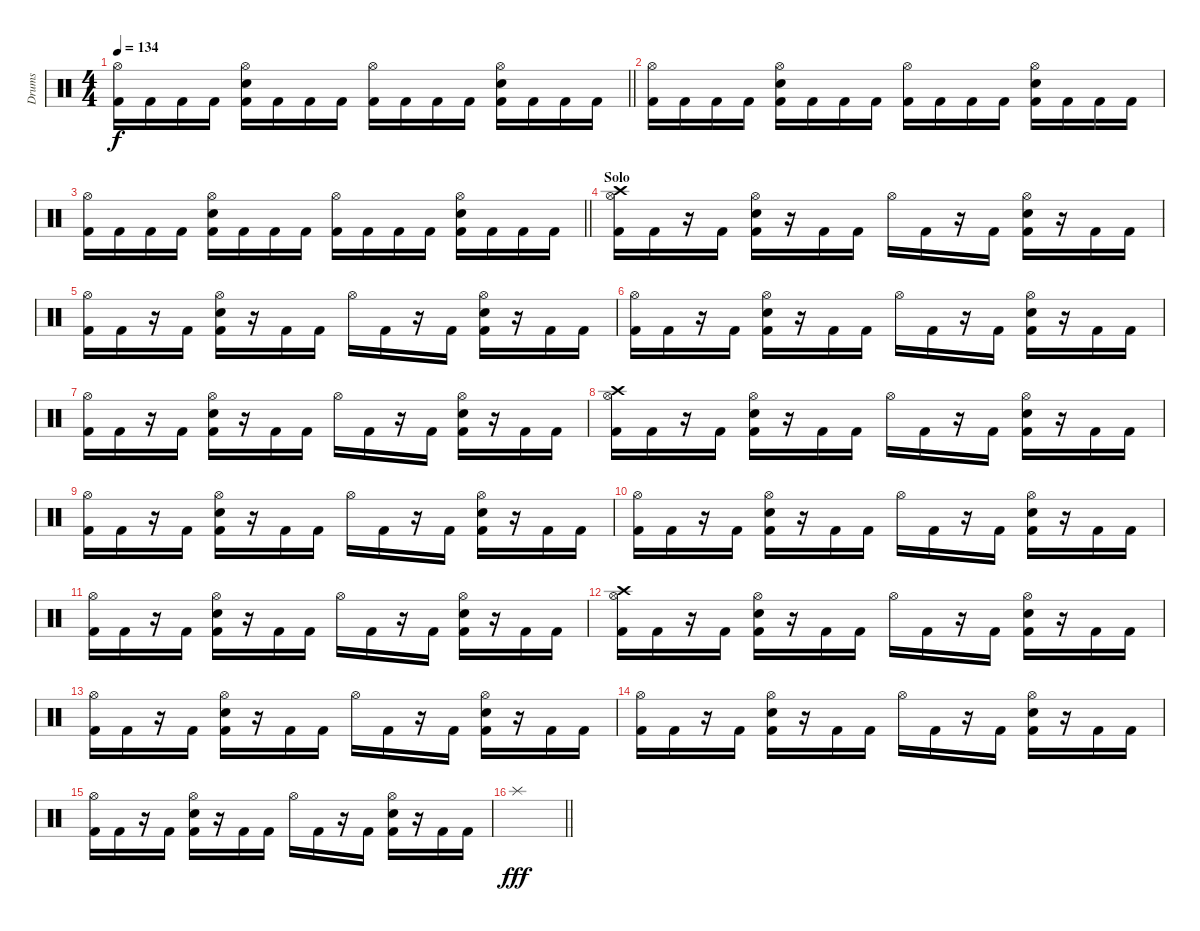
\track ("Drums" "Drums") {instrument percussion}
\staff {score}
\articulation defaults
\ts (4 4)
\tempo 134
\clef neutral
\barLineRight lightlight
\ks c
("Hi-Hat (open)" "Kick (hit) 2").16{dy f} "Kick (hit) 2".16 "Kick (hit) 2".16 "Kick (hit) 2".16 ("Hi-Hat (open)" "Snare (hit) 2" "Kick (hit) 2").16 "Kick (hit) 2".16 "Kick (hit) 2".16 "Kick (hit) 2".16 ("Hi-Hat (open)" "Kick (hit) 2").16 "Kick (hit) 2".16 "Kick (hit) 2".16 "Kick (hit) 2".16 ("Hi-Hat (open)" "Snare (hit) 2" "Kick (hit) 2").16 "Kick (hit) 2".16 "Kick (hit) 2".16 "Kick (hit) 2".16 |
("Hi-Hat (open)" "Kick (hit) 2").16 "Kick (hit) 2".16 "Kick (hit) 2".16 "Kick (hit) 2".16 ("Hi-Hat (open)" "Snare (hit) 2" "Kick (hit) 2").16 "Kick (hit) 2".16 "Kick (hit) 2".16 "Kick (hit) 2".16 ("Hi-Hat (open)" "Kick (hit) 2").16 "Kick (hit) 2".16 "Kick (hit) 2".16 "Kick (hit) 2".16 ("Hi-Hat (open)" "Snare (hit) 2" "Kick (hit) 2").16 "Kick (hit) 2".16 "Kick (hit) 2".16 "Kick (hit) 2".16 |
\barLineRight lightlight
("Hi-Hat (open)" "Kick (hit) 2").16 "Kick (hit) 2".16 "Kick (hit) 2".16 "Kick (hit) 2".16 ("Hi-Hat (open)" "Snare (hit) 2" "Kick (hit) 2").16 "Kick (hit) 2".16 "Kick (hit) 2".16 "Kick (hit) 2".16 ("Hi-Hat (open)" "Kick (hit) 2").16 "Kick (hit) 2".16 "Kick (hit) 2".16 "Kick (hit) 2".16 ("Hi-Hat (open)" "Snare (hit) 2" "Kick (hit) 2").16 "Kick (hit) 2".16 "Kick (hit) 2".16 "Kick (hit) 2".16 |
\section ("" "Solo")
("Crash high (hit)" "Hi-Hat (open)" "Kick (hit) 2").16 "Kick (hit) 2".16 r.16 "Kick (hit) 2".16 ("Hi-Hat (open)" "Snare (hit) 2" "Kick (hit) 2").16 r.16 "Kick (hit) 2".16 "Kick (hit) 2".16 "Hi-Hat (open)".16 "Kick (hit) 2".16 r.16 "Kick (hit) 2".16 ("Hi-Hat (open)" "Snare (hit) 2" "Kick (hit) 2").16 r.16 "Kick (hit) 2".16 "Kick (hit) 2".16 |
("Hi-Hat (open)" "Kick (hit) 2").16 "Kick (hit) 2".16 r.16 "Kick (hit) 2".16 ("Hi-Hat (open)" "Snare (hit) 2" "Kick (hit) 2").16 r.16 "Kick (hit) 2".16 "Kick (hit) 2".16 "Hi-Hat (open)".16 "Kick (hit) 2".16 r.16 "Kick (hit) 2".16 ("Hi-Hat (open)" "Snare (hit) 2" "Kick (hit) 2").16 r.16 "Kick (hit) 2".16 "Kick (hit) 2".16 |
("Hi-Hat (open)" "Kick (hit) 2").16 "Kick (hit) 2".16 r.16 "Kick (hit) 2".16 ("Hi-Hat (open)" "Snare (hit) 2" "Kick (hit) 2").16 r.16 "Kick (hit) 2".16 "Kick (hit) 2".16 "Hi-Hat (open)".16 "Kick (hit) 2".16 r.16 "Kick (hit) 2".16 ("Hi-Hat (open)" "Snare (hit) 2" "Kick (hit) 2").16 r.16 "Kick (hit) 2".16 "Kick (hit) 2".16 |
("Hi-Hat (open)" "Kick (hit) 2").16 "Kick (hit) 2".16 r.16 "Kick (hit) 2".16 ("Hi-Hat (open)" "Snare (hit) 2" "Kick (hit) 2").16 r.16 "Kick (hit) 2".16 "Kick (hit) 2".16 "Hi-Hat (open)".16 "Kick (hit) 2".16 r.16 "Kick (hit) 2".16 ("Hi-Hat (open)" "Snare (hit) 2" "Kick (hit) 2").16 r.16 "Kick (hit) 2".16 "Kick (hit) 2".16 |
("Crash high (hit)" "Hi-Hat (open)" "Kick (hit) 2").16 "Kick (hit) 2".16 r.16 "Kick (hit) 2".16 ("Hi-Hat (open)" "Snare (hit) 2" "Kick (hit) 2").16 r.16 "Kick (hit) 2".16 "Kick (hit) 2".16 "Hi-Hat (open)".16 "Kick (hit) 2".16 r.16 "Kick (hit) 2".16 ("Hi-Hat (open)" "Snare (hit) 2" "Kick (hit) 2").16 r.16 "Kick (hit) 2".16 "Kick (hit) 2".16 |
("Hi-Hat (open)" "Kick (hit) 2").16 "Kick (hit) 2".16 r.16 "Kick (hit) 2".16 ("Hi-Hat (open)" "Snare (hit) 2" "Kick (hit) 2").16 r.16 "Kick (hit) 2".16 "Kick (hit) 2".16 "Hi-Hat (open)".16 "Kick (hit) 2".16 r.16 "Kick (hit) 2".16 ("Hi-Hat (open)" "Snare (hit) 2" "Kick (hit) 2").16 r.16 "Kick (hit) 2".16 "Kick (hit) 2".16 |
("Hi-Hat (open)" "Kick (hit) 2").16 "Kick (hit) 2".16 r.16 "Kick (hit) 2".16 ("Hi-Hat (open)" "Snare (hit) 2" "Kick (hit) 2").16 r.16 "Kick (hit) 2".16 "Kick (hit) 2".16 "Hi-Hat (open)".16 "Kick (hit) 2".16 r.16 "Kick (hit) 2".16 ("Hi-Hat (open)" "Snare (hit) 2" "Kick (hit) 2").16 r.16 "Kick (hit) 2".16 "Kick (hit) 2".16 |
("Hi-Hat (open)" "Kick (hit) 2").16 "Kick (hit) 2".16 r.16 "Kick (hit) 2".16 ("Hi-Hat (open)" "Snare (hit) 2" "Kick (hit) 2").16 r.16 "Kick (hit) 2".16 "Kick (hit) 2".16 "Hi-Hat (open)".16 "Kick (hit) 2".16 r.16 "Kick (hit) 2".16 ("Hi-Hat (open)" "Snare (hit) 2" "Kick (hit) 2").16 r.16 "Kick (hit) 2".16 "Kick (hit) 2".16 |
("Crash high (hit)" "Hi-Hat (open)" "Kick (hit) 2").16 "Kick (hit) 2".16 r.16 "Kick (hit) 2".16 ("Hi-Hat (open)" "Snare (hit) 2" "Kick (hit) 2").16 r.16 "Kick (hit) 2".16 "Kick (hit) 2".16 "Hi-Hat (open)".16 "Kick (hit) 2".16 r.16 "Kick (hit) 2".16 ("Hi-Hat (open)" "Snare (hit) 2" "Kick (hit) 2").16 r.16 "Kick (hit) 2".16 "Kick (hit) 2".16 |
("Hi-Hat (open)" "Kick (hit) 2").16 "Kick (hit) 2".16 r.16 "Kick (hit) 2".16 ("Hi-Hat (open)" "Snare (hit) 2" "Kick (hit) 2").16 r.16 "Kick (hit) 2".16 "Kick (hit) 2".16 "Hi-Hat (open)".16 "Kick (hit) 2".16 r.16 "Kick (hit) 2".16 ("Hi-Hat (open)" "Snare (hit) 2" "Kick (hit) 2").16 r.16 "Kick (hit) 2".16 "Kick (hit) 2".16 |
("Hi-Hat (open)" "Kick (hit) 2").16 "Kick (hit) 2".16 r.16 "Kick (hit) 2".16 ("Hi-Hat (open)" "Snare (hit) 2" "Kick (hit) 2").16 r.16 "Kick (hit) 2".16 "Kick (hit) 2".16 "Hi-Hat (open)".16 "Kick (hit) 2".16 r.16 "Kick (hit) 2".16 ("Hi-Hat (open)" "Snare (hit) 2" "Kick (hit) 2").16 r.16 "Kick (hit) 2".16 "Kick (hit) 2".16 |
("Hi-Hat (open)" "Kick (hit) 2").16 "Kick (hit) 2".16 r.16 "Kick (hit) 2".16 ("Hi-Hat (open)" "Snare (hit) 2" "Kick (hit) 2").16 r.16 "Kick (hit) 2".16 "Kick (hit) 2".16 "Hi-Hat (open)".16 "Kick (hit) 2".16 r.16 "Kick (hit) 2".16 ("Hi-Hat (open)" "Snare (hit) 2" "Kick (hit) 2").16 r.16 "Kick (hit) 2".16 "Kick (hit) 2".16 |
\barLineRight lightlight "Splash (hit)".1{dy fff}
